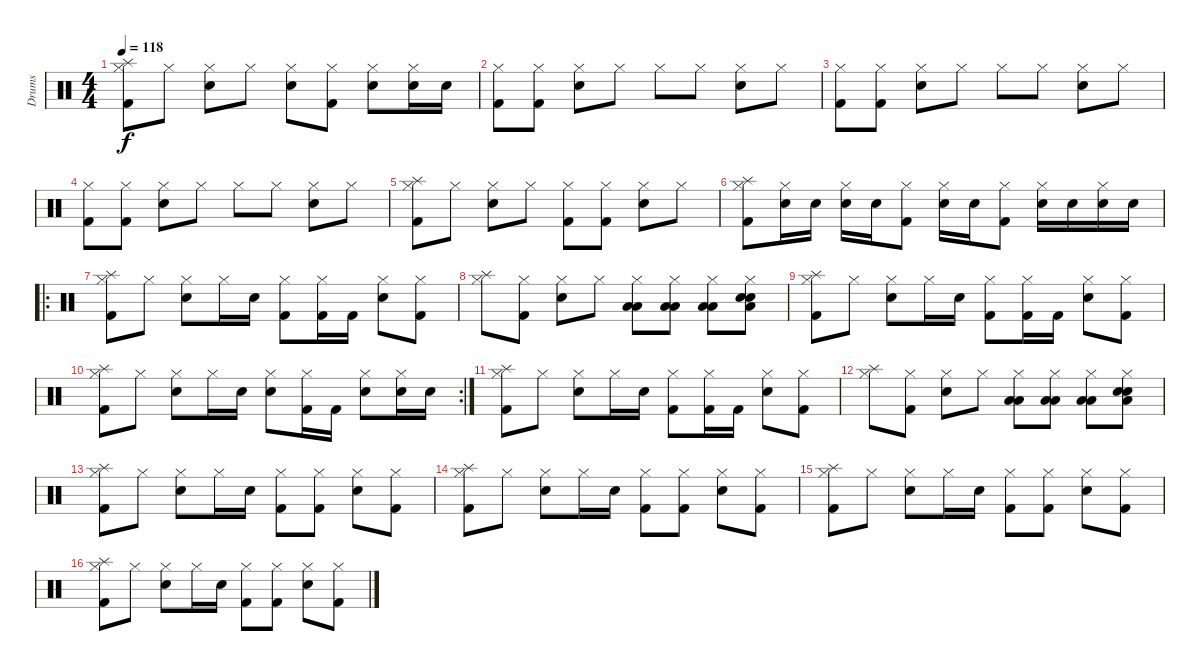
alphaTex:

\track ("Drums" "Drums") {instrument percussion}
\staff {score}
\articulation defaults
\ts (4 4)
\tempo 118
\clef neutral
\ks c
("Splash (hit)" "Hi-Hat (closed)" "Kick (hit) 2").8{dy f} "Hi-Hat (closed)".8 ("Hi-Hat (closed)" "Snare (hit) 2").8 "Hi-Hat (closed)".8 ("Hi-Hat (closed)" "Snare (hit) 2").8 ("Hi-Hat (closed)" "Kick (hit) 2").8 ("Hi-Hat (closed)" "Snare (hit) 2").8 ("Hi-Hat (closed)" "Snare (hit) 2").16 "Snare (hit) 2".16 |
("Hi-Hat (closed)" "Kick (hit) 2").8 ("Hi-Hat (closed)" "Kick (hit) 2").8 ("Hi-Hat (closed)" "Snare (hit) 2").8 "Hi-Hat (closed)".8 "Hi-Hat (closed)".8 "Hi-Hat (closed)".8 ("Hi-Hat (closed)" "Snare (hit) 2").8 "Hi-Hat (closed)".8 |
("Hi-Hat (closed)" "Kick (hit) 2").8 ("Hi-Hat (closed)" "Kick (hit) 2").8 ("Hi-Hat (closed)" "Snare (hit) 2").8 "Hi-Hat (closed)".8 "Hi-Hat (closed)".8 "Hi-Hat (closed)".8 ("Hi-Hat (closed)" "Snare (hit) 2").8 "Hi-Hat (closed)".8 |
("Hi-Hat (closed)" "Kick (hit) 2").8 ("Hi-Hat (closed)" "Kick (hit) 2").8 ("Hi-Hat (closed)" "Snare (hit) 2").8 "Hi-Hat (closed)".8 "Hi-Hat (closed)".8 "Hi-Hat (closed)".8 ("Hi-Hat (closed)" "Snare (hit) 2").8 "Hi-Hat (closed)".8 |
("Splash (hit)" "Hi-Hat (closed)" "Kick (hit) 2").8 "Hi-Hat (closed)".8 ("Hi-Hat (closed)" "Snare (hit) 2").8 "Hi-Hat (closed)".8 ("Hi-Hat (closed)" "Kick (hit) 2").8 ("Hi-Hat (closed)" "Kick (hit) 2").8 ("Hi-Hat (closed)" "Snare (hit) 2").8 "Hi-Hat (closed)".8 |
("Splash (hit)" "Hi-Hat (closed)" "Kick (hit) 2").8 ("Hi-Hat (closed)" "Snare (hit) 2").16 "Snare (hit) 2".16 ("Hi-Hat (closed)" "Snare (hit) 2").16 "Snare (hit) 2".16 ("Hi-Hat (closed)" "Kick (hit) 2").8 ("Hi-Hat (closed)" "Snare (hit) 2").16 "Snare (hit) 2".16 ("Hi-Hat (closed)" "Kick (hit) 2").8 ("Hi-Hat (closed)" "Snare (hit) 2").16 "Snare (hit) 2".16 ("Hi-Hat (closed)" "Snare (hit) 2").16 "Snare (hit) 2".16 |
\ro
("Splash (hit)" "Hi-Hat (closed)" "Kick (hit) 2").8 "Hi-Hat (closed)".8 ("Hi-Hat (closed)" "Snare (hit) 2").8 "Hi-Hat (closed)".16 "Snare (hit) 2".16 ("Hi-Hat (closed)" "Kick (hit) 2").8 ("Hi-Hat (closed)" "Kick (hit) 2").16 "Kick (hit) 2".16 ("Hi-Hat (closed)" "Snare (hit) 2").8 ("Hi-Hat (closed)" "Kick (hit) 2").8 |
("Splash (hit)" "Hi-Hat (closed)").8 ("Hi-Hat (closed)" "Kick (hit) 2").8 ("Hi-Hat (closed)" "Snare (hit) 2").8 "Hi-Hat (closed)".8 ("Low Tom (hit)" "Hi-Hat (closed)" "Low Floor Tom (hit)").8 ("Low Tom (hit)" "Hi-Hat (closed)" "Low Floor Tom (hit)").8 ("Low Tom (hit)" "Hi-Hat (closed)" "Low Floor Tom (hit)").8 ("Snare (hit) 2" "Hi-Hat (closed)" "Low Floor Tom (hit)" "Snare (hit) 2").8 |
("Splash (hit)" "Hi-Hat (closed)" "Kick (hit) 2").8 "Hi-Hat (closed)".8 ("Hi-Hat (closed)" "Snare (hit) 2").8 "Hi-Hat (closed)".16 "Snare (hit) 2".16 ("Hi-Hat (closed)" "Kick (hit) 2").8 ("Hi-Hat (closed)" "Kick (hit) 2").16 "Kick (hit) 2".16 ("Hi-Hat (closed)" "Snare (hit) 2").8 ("Hi-Hat (closed)" "Kick (hit) 2").8 |
\rc 2
("Splash (hit)" "Hi-Hat (closed)" "Kick (hit) 2").8 "Hi-Hat (closed)".8 ("Hi-Hat (closed)" "Snare (hit) 2").8 "Hi-Hat (closed)".16 "Snare (hit) 2".16 ("Hi-Hat (closed)" "Snare (hit) 2").8 ("Hi-Hat (closed)" "Kick (hit) 2").16 "Kick (hit) 2".16 ("Hi-Hat (closed)" "Snare (hit) 2").8 ("Hi-Hat (closed)" "Snare (hit) 2").16 "Snare (hit) 2".16 |
("Splash (hit)" "Hi-Hat (closed)" "Kick (hit) 2").8 "Hi-Hat (closed)".8 ("Hi-Hat (closed)" "Snare (hit) 2").8 "Hi-Hat (closed)".16 "Snare (hit) 2".16 ("Hi-Hat (closed)" "Kick (hit) 2").8 ("Hi-Hat (closed)" "Kick (hit) 2").16 "Kick (hit) 2".16 ("Hi-Hat (closed)" "Snare (hit) 2").8 ("Hi-Hat (closed)" "Kick (hit) 2").8 |
("Splash (hit)" "Hi-Hat (closed)").8 ("Hi-Hat (closed)" "Kick (hit) 2").8 ("Hi-Hat (closed)" "Snare (hit) 2").8 "Hi-Hat (closed)".8 ("Low Tom (hit)" "Hi-Hat (closed)" "Low Floor Tom (hit)").8 ("Low Tom (hit)" "Hi-Hat (closed)" "Low Floor Tom (hit)").8 ("Low Tom (hit)" "Hi-Hat (closed)" "Low Floor Tom (hit)").8 ("Snare (hit) 2" "Hi-Hat (closed)" "Low Floor Tom (hit)" "Snare (hit) 2").8 |
("Splash (hit)" "Hi-Hat (closed)" "Kick (hit) 2").8 "Hi-Hat (closed)".8 ("Hi-Hat (closed)" "Snare (hit) 2").8 "Hi-Hat (closed)".16 "Snare (hit) 2".16 ("Hi-Hat (closed)" "Kick (hit) 2").8 ("Hi-Hat (closed)" "Kick (hit) 2").8 ("Hi-Hat (closed)" "Snare (hit) 2").8 ("Hi-Hat (closed)" "Kick (hit) 2").8 |
("Splash (hit)" "Hi-Hat (closed)" "Kick (hit) 2").8 "Hi-Hat (closed)".8 ("Hi-Hat (closed)" "Snare (hit) 2").8 "Hi-Hat (closed)".16 "Snare (hit) 2".16 ("Hi-Hat (closed)" "Kick (hit) 2").8 ("Hi-Hat (closed)" "Kick (hit) 2").8 ("Hi-Hat (closed)" "Snare (hit) 2").8 ("Hi-Hat (closed)" "Kick (hit) 2").8 |
("Splash (hit)" "Hi-Hat (closed)" "Kick (hit) 2").8 "Hi-Hat (closed)".8 ("Hi-Hat (closed)" "Snare (hit) 2").8 "Hi-Hat (closed)".16 "Snare (hit) 2".16 ("Hi-Hat (closed)" "Kick (hit) 2").8 ("Hi-Hat (closed)" "Kick (hit) 2").8 ("Hi-Hat (closed)" "Snare (hit) 2").8 ("Hi-Hat (closed)" "Kick (hit) 2").8 |
("Splash (hit)" "Hi-Hat (closed)" "Kick (hit) 2").8 "Hi-Hat (closed)".8 ("Hi-Hat (closed)" "Snare (hit) 2").8 "Hi-Hat (closed)".16 "Snare (hit) 2".16 ("Hi-Hat (closed)" "Kick (hit) 2").8 ("Hi-Hat (closed)" "Kick (hit) 2").8 ("Hi-Hat (closed)" "Snare (hit) 2").8 ("Hi-Hat (closed)" "Kick (hit) 2").8
